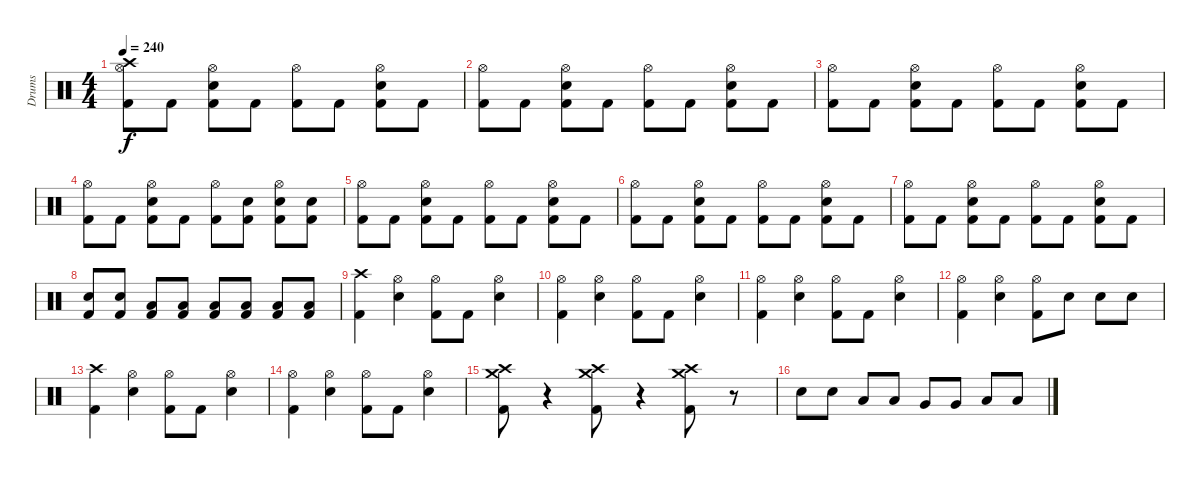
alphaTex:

\track ("Drums" "Drums") {instrument percussion}
\staff {score}
\articulation defaults
\ts (4 4)
\tempo 240
\clef neutral
\ks c
("Hi-Hat (open)" "Crash high (hit)" "Kick (hit) 2").8{dy f} "Kick (hit) 2".8 ("Hi-Hat (open)" "Snare (hit) 2" "Kick (hit) 2").8 "Kick (hit) 2".8 ("Hi-Hat (open)" "Kick (hit) 2").8 "Kick (hit) 2".8 ("Hi-Hat (open)" "Snare (hit) 2" "Kick (hit) 2").8 "Kick (hit) 2".8 |
("Hi-Hat (open)" "Kick (hit) 2").8 "Kick (hit) 2".8 ("Hi-Hat (open)" "Snare (hit) 2" "Kick (hit) 2").8 "Kick (hit) 2".8 ("Hi-Hat (open)" "Kick (hit) 2").8 "Kick (hit) 2".8 ("Hi-Hat (open)" "Snare (hit) 2" "Kick (hit) 2").8 "Kick (hit) 2".8 |
("Hi-Hat (open)" "Kick (hit) 2").8 "Kick (hit) 2".8 ("Hi-Hat (open)" "Snare (hit) 2" "Kick (hit) 2").8 "Kick (hit) 2".8 ("Hi-Hat (open)" "Kick (hit) 2").8 "Kick (hit) 2".8 ("Hi-Hat (open)" "Snare (hit) 2" "Kick (hit) 2").8 "Kick (hit) 2".8 |
("Hi-Hat (open)" "Kick (hit) 2").8 "Kick (hit) 2".8 ("Hi-Hat (open)" "Snare (hit) 2" "Kick (hit) 2").8 "Kick (hit) 2".8 ("Hi-Hat (open)" "Kick (hit) 2").8 ("Snare (hit) 2" "Kick (hit) 2").8 ("Hi-Hat (open)" "Snare (hit) 2" "Kick (hit) 2").8 ("Snare (hit) 2" "Kick (hit) 2").8 |
("Hi-Hat (open)" "Kick (hit) 2").8 "Kick (hit) 2".8 ("Hi-Hat (open)" "Snare (hit) 2" "Kick (hit) 2").8 "Kick (hit) 2".8 ("Hi-Hat (open)" "Kick (hit) 2").8 "Kick (hit) 2".8 ("Hi-Hat (open)" "Snare (hit) 2" "Kick (hit) 2").8 "Kick (hit) 2".8 |
("Hi-Hat (open)" "Kick (hit) 2").8 "Kick (hit) 2".8 ("Hi-Hat (open)" "Snare (hit) 2" "Kick (hit) 2").8 "Kick (hit) 2".8 ("Hi-Hat (open)" "Kick (hit) 2").8 "Kick (hit) 2".8 ("Hi-Hat (open)" "Snare (hit) 2" "Kick (hit) 2").8 "Kick (hit) 2".8 |
("Hi-Hat (open)" "Kick (hit) 2").8 "Kick (hit) 2".8 ("Hi-Hat (open)" "Snare (hit) 2" "Kick (hit) 2").8 "Kick (hit) 2".8 ("Hi-Hat (open)" "Kick (hit) 2").8 "Kick (hit) 2".8 ("Hi-Hat (open)" "Snare (hit) 2" "Kick (hit) 2").8 "Kick (hit) 2".8 |
("Snare (hit) 2" "Kick (hit) 2").8 ("Snare (hit) 2" "Kick (hit) 2").8 ("Low Floor Tom (hit)" "Kick (hit) 2").8 ("Low Floor Tom (hit)" "Kick (hit) 2").8 ("Low Floor Tom (hit)" "Kick (hit) 2").8 ("Low Floor Tom (hit)" "Kick (hit) 2").8 ("Low Floor Tom (hit)" "Kick (hit) 2").8 ("Low Floor Tom (hit)" "Kick (hit) 2").8 |
("Crash high (hit)" "Kick (hit) 2").4 ("Hi-Hat (open)" "Snare (hit) 2").4 ("Hi-Hat (open)" "Kick (hit) 2").8 "Kick (hit) 2".8 ("Hi-Hat (open)" "Snare (hit) 2").4 |
("Hi-Hat (open)" "Kick (hit) 2").4 ("Hi-Hat (open)" "Snare (hit) 2").4 ("Hi-Hat (open)" "Kick (hit) 2").8 "Kick (hit) 2".8 ("Hi-Hat (open)" "Snare (hit) 2").4 |
("Hi-Hat (open)" "Kick (hit) 2").4 ("Hi-Hat (open)" "Snare (hit) 2").4 ("Hi-Hat (open)" "Kick (hit) 2").8 "Kick (hit) 2".8 ("Hi-Hat (open)" "Snare (hit) 2").4 |
("Hi-Hat (open)" "Kick (hit) 2").4 ("Hi-Hat (open)" "Snare (hit) 2").4 ("Hi-Hat (open)" "Kick (hit) 2").8 "Snare (hit) 2".8 "Snare (hit) 2".8 "Snare (hit) 2".8 |
("Crash high (hit)" "Kick (hit) 2").4 ("Hi-Hat (open)" "Snare (hit) 2").4 ("Hi-Hat (open)" "Kick (hit) 2").8 "Kick (hit) 2".8 ("Hi-Hat (open)" "Snare (hit) 2").4 |
("Hi-Hat (open)" "Kick (hit) 2").4 ("Hi-Hat (open)" "Snare (hit) 2").4 ("Hi-Hat (open)" "Kick (hit) 2").8 "Kick (hit) 2".8 ("Hi-Hat (open)" "Snare (hit) 2").4 |
("Crash high (hit)" "Crash medium (hit)" "Kick (hit) 2").8 r.4 ("Crash high (hit)" "Crash medium (hit)" "Kick (hit) 2").8 r.4 ("Crash high (hit)" "Crash medium (hit)" "Kick (hit) 2").8 r.8 |
"Snare (hit) 2".8 "Snare (hit) 2".8 "Low Tom (hit)".8 "Low Tom (hit)".8 "Very Low Tom (hit)".8 "Very Low Tom (hit)".8 "Low Floor Tom (hit)".8 "Low Floor Tom (hit)".8
